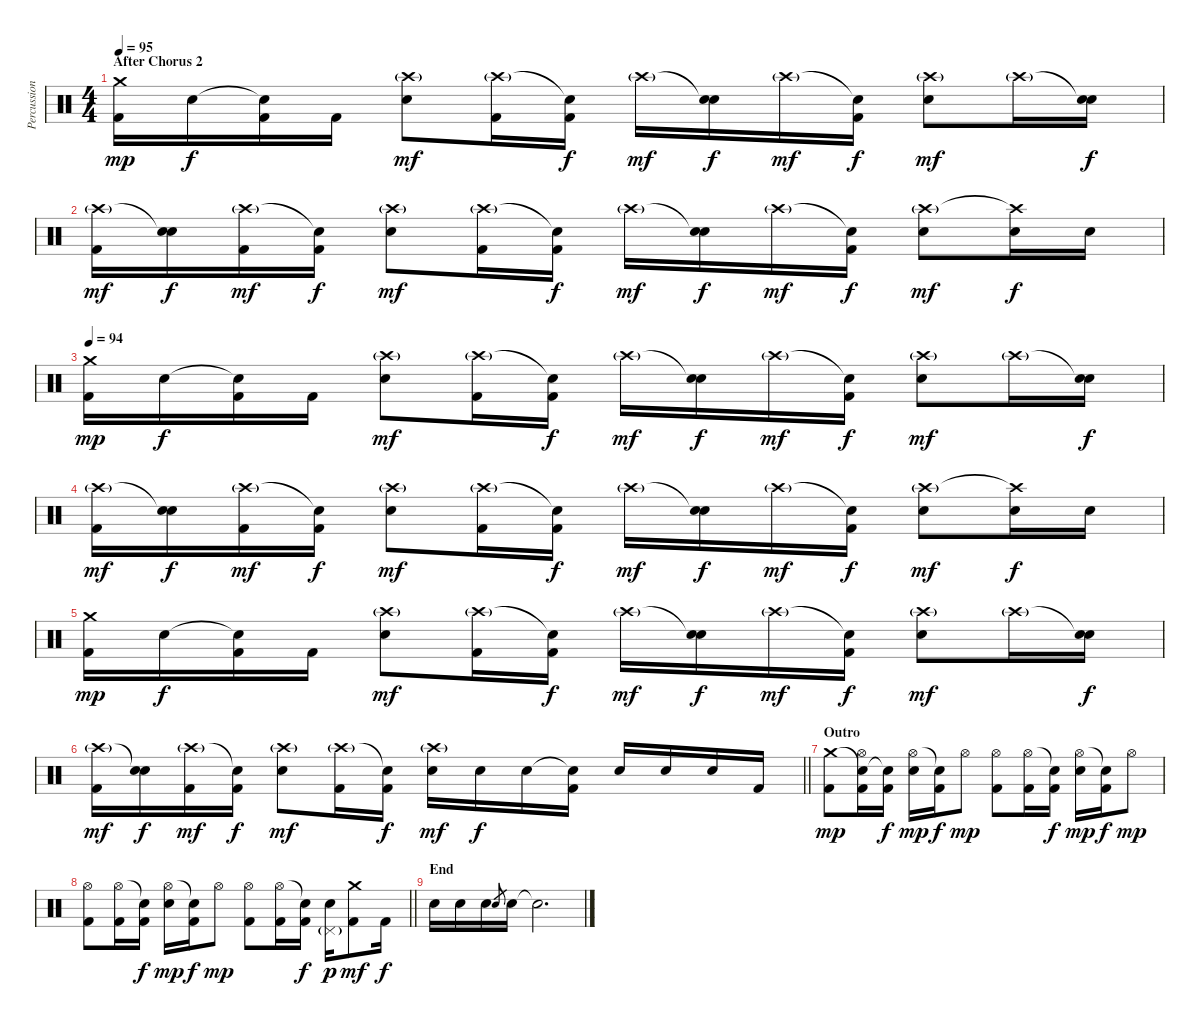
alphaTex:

\track ("Percussions" "Percussion") {instrument percussion}
\staff {score}
\articulation defaults
\ts (4 4)
\section ("" "After Chorus 2")
\tempo 95
\clef neutral
\ks c
("Crash medium (hit)" "Kick (hit) 2").16{dy mp} "Electric Snare (hit)".16{dy f} ("Snare (hit)"{t} "Kick (hit) 2").16 "Kick (hit) 2".16 ("Crash high (hit)"{g} "Electric Snare (hit)").8{dy mf} ("Crash high (hit)"{g} "Kick (hit) 2").16 ("Snare (hit)"{t} "Kick (hit) 2").16{dy f} "Crash high (hit)"{g}.16{dy mf} ("Snare (hit)"{t} "Electric Snare (hit)").16{dy f} "Crash high (hit)"{g}.16{dy mf} ("Snare (hit)"{t} "Kick (hit) 2").16{dy f} ("Crash high (hit)"{g} "Electric Snare (hit)").8{dy mf} "Crash high (hit)"{g}.16 ("Snare (hit)"{t} "Electric Snare (hit)").16{dy f} |
("Crash high (hit)"{g} "Kick (hit) 2").16{dy mf} ("Snare (hit)"{t} "Electric Snare (hit)").16{dy f} ("Crash high (hit)"{g} "Kick (hit) 2").16{dy mf} ("Snare (hit)"{t} "Kick (hit) 2").16{dy f} ("Crash high (hit)"{g} "Electric Snare (hit)").8{dy mf} ("Crash high (hit)"{g} "Kick (hit) 2").16 ("Snare (hit)"{t} "Kick (hit) 2").16{dy f} "Crash high (hit)"{g}.16{dy mf} ("Snare (hit)"{t} "Electric Snare (hit)").16{dy f} "Crash high (hit)"{g}.16{dy mf} ("Snare (hit)"{t} "Kick (hit) 2").16{dy f} ("Crash high (hit)"{g} "Electric Snare (hit)").8{dy mf} ("Crash high (hit)"{t} "Electric Snare (hit)").16{dy f} "Electric Snare (hit)".16 |
\tempo 94
("Crash medium (hit)" "Kick (hit) 2").16{dy mp} "Electric Snare (hit)".16{dy f} ("Snare (hit)"{t} "Kick (hit) 2").16 "Kick (hit) 2".16 ("Crash high (hit)"{g} "Electric Snare (hit)").8{dy mf} ("Crash high (hit)"{g} "Kick (hit) 2").16 ("Snare (hit)"{t} "Kick (hit) 2").16{dy f} "Crash high (hit)"{g}.16{dy mf} ("Snare (hit)"{t} "Electric Snare (hit)").16{dy f} "Crash high (hit)"{g}.16{dy mf} ("Snare (hit)"{t} "Kick (hit) 2").16{dy f} ("Crash high (hit)"{g} "Electric Snare (hit)").8{dy mf} "Crash high (hit)"{g}.16 ("Snare (hit)"{t} "Electric Snare (hit)").16{dy f} |
("Crash high (hit)"{g} "Kick (hit) 2").16{dy mf} ("Snare (hit)"{t} "Electric Snare (hit)").16{dy f} ("Crash high (hit)"{g} "Kick (hit) 2").16{dy mf} ("Snare (hit)"{t} "Kick (hit) 2").16{dy f} ("Crash high (hit)"{g} "Electric Snare (hit)").8{dy mf} ("Crash high (hit)"{g} "Kick (hit) 2").16 ("Snare (hit)"{t} "Kick (hit) 2").16{dy f} "Crash high (hit)"{g}.16{dy mf} ("Snare (hit)"{t} "Electric Snare (hit)").16{dy f} "Crash high (hit)"{g}.16{dy mf} ("Snare (hit)"{t} "Kick (hit) 2").16{dy f} ("Crash high (hit)"{g} "Electric Snare (hit)").8{dy mf} ("Crash high (hit)"{t} "Electric Snare (hit)").16{dy f} "Electric Snare (hit)".16 |
("Crash medium (hit)" "Kick (hit) 2").16{dy mp} "Electric Snare (hit)".16{dy f} ("Snare (hit)"{t} "Kick (hit) 2").16 "Kick (hit) 2".16 ("Crash high (hit)"{g} "Electric Snare (hit)").8{dy mf} ("Crash high (hit)"{g} "Kick (hit) 2").16 ("Snare (hit)"{t} "Kick (hit) 2").16{dy f} "Crash high (hit)"{g}.16{dy mf} ("Snare (hit)"{t} "Electric Snare (hit)").16{dy f} "Crash high (hit)"{g}.16{dy mf} ("Snare (hit)"{t} "Kick (hit) 2").16{dy f} ("Crash high (hit)"{g} "Electric Snare (hit)").8{dy mf} "Crash high (hit)"{g}.16 ("Snare (hit)"{t} "Electric Snare (hit)").16{dy f} |
\barLineRight lightlight
("Crash high (hit)"{g} "Kick (hit) 2").16{dy mf} ("Snare (hit)"{t} "Electric Snare (hit)").16{dy f} ("Crash high (hit)"{g} "Kick (hit) 2").16{dy mf} ("Snare (hit)"{t} "Kick (hit) 2").16{dy f} ("Crash high (hit)"{g} "Electric Snare (hit)").8{dy mf} ("Crash high (hit)"{g} "Kick (hit) 2").16 ("Snare (hit)"{t} "Kick (hit) 2").16{dy f} ("Crash high (hit)"{g} "Electric Snare (hit)").16{dy mf} "Electric Snare (hit)".16{dy f} "Electric Snare (hit)".16 ("Snare (hit)"{t} "Kick (hit) 2").16 "Electric Snare (hit)".16 "Electric Snare (hit)".16 "Electric Snare (hit)".16 "Kick (hit) 2".16 |
\section ("" "Outro")
("Crash medium (hit)" "Kick (hit) 2").8{dy mp} ("Snare (hit)"{t} "Hi-Hat (open)" "Kick (hit) 2").16 ("Snare (hit)"{t} "Kick (hit) 2").16{dy f} ("Hi-Hat (open)" "Electric Snare (hit)").16{dy mp} ("Snare (hit)"{t} "Kick (hit) 2").16{dy f} "Hi-Hat (open)".8{dy mp} ("Hi-Hat (open)" "Kick (hit) 2").8 ("Hi-Hat (open)" "Kick (hit) 2").16 ("Snare (hit)"{t} "Kick (hit) 2").16{dy f} ("Hi-Hat (open)" "Electric Snare (hit)").16{dy mp} ("Snare (hit)"{t} "Kick (hit) 2").16{dy f} "Hi-Hat (open)".8{dy mp} |
\barLineRight lightlight
("Hi-Hat (open)" "Kick (hit) 2").8 ("Hi-Hat (open)" "Kick (hit) 2").16 ("Snare (hit)"{t} "Kick (hit) 2").16{dy f} ("Hi-Hat (open)" "Electric Snare (hit)").16{dy mp} ("Snare (hit)"{t} "Kick (hit) 2").16{dy f} "Hi-Hat (open)".8{dy mp} ("Hi-Hat (open)" "Kick (hit) 2").8 ("Hi-Hat (open)" "Kick (hit) 2").16 ("Snare (hit)"{t} "Kick (hit) 2").16{dy f} ("Pedal Hi-Hat (hit)"{g} "Electric Snare (hit)").16{dy p} ("Crash medium (hit)" "Kick (hit) 2").8{dy mf} "Kick (hit) 2".16{dy f} |
\section ("" "End")
"Electric Snare (hit)".16 "Electric Snare (hit)".16 "Electric Snare (hit)".16 "Electric Snare (hit)".8{gr} "Electric Snare (hit)".16 "Snare (hit)"{t}.2{d}
